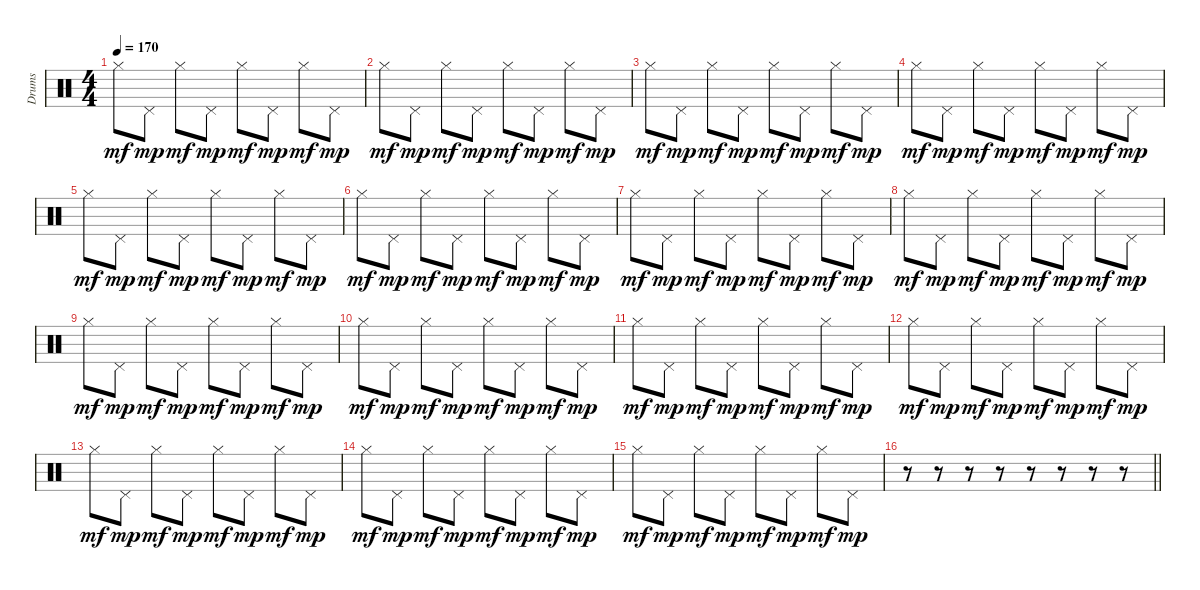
\track ("Drums" "Drums") {instrument percussion}
\staff {score}
\articulation defaults
\ts (4 4)
\tempo 170
\clef neutral
\ks c "Hi-Hat (closed)".8{dy mf} "Pedal Hi-Hat (hit)".8{dy mp} "Hi-Hat (closed)".8{dy mf} "Pedal Hi-Hat (hit)".8{dy mp} "Hi-Hat (closed)".8{dy mf} "Pedal Hi-Hat (hit)".8{dy mp} "Hi-Hat (closed)".8{dy mf} "Pedal Hi-Hat (hit)".8{dy mp}
|
"Hi-Hat (closed)".8{dy mf} "Pedal Hi-Hat (hit)".8{dy mp} "Hi-Hat (closed)".8{dy mf} "Pedal Hi-Hat (hit)".8{dy mp} "Hi-Hat (closed)".8{dy mf} "Pedal Hi-Hat (hit)".8{dy mp} "Hi-Hat (closed)".8{dy mf} "Pedal Hi-Hat (hit)".8{dy mp} |
"Hi-Hat (closed)".8{dy mf} "Pedal Hi-Hat (hit)".8{dy mp} "Hi-Hat (closed)".8{dy mf} "Pedal Hi-Hat (hit)".8{dy mp} "Hi-Hat (closed)".8{dy mf} "Pedal Hi-Hat (hit)".8{dy mp} "Hi-Hat (closed)".8{dy mf} "Pedal Hi-Hat (hit)".8{dy mp} |
"Hi-Hat (closed)".8{dy mf} "Pedal Hi-Hat (hit)".8{dy mp} "Hi-Hat (closed)".8{dy mf} "Pedal Hi-Hat (hit)".8{dy mp} "Hi-Hat (closed)".8{dy mf} "Pedal Hi-Hat (hit)".8{dy mp} "Hi-Hat (closed)".8{dy mf} "Pedal Hi-Hat (hit)".8{dy mp} |
"Hi-Hat (closed)".8{dy mf} "Pedal Hi-Hat (hit)".8{dy mp} "Hi-Hat (closed)".8{dy mf} "Pedal Hi-Hat (hit)".8{dy mp} "Hi-Hat (closed)".8{dy mf} "Pedal Hi-Hat (hit)".8{dy mp} "Hi-Hat (closed)".8{dy mf} "Pedal Hi-Hat (hit)".8{dy mp} |
"Hi-Hat (closed)".8{dy mf} "Pedal Hi-Hat (hit)".8{dy mp} "Hi-Hat (closed)".8{dy mf} "Pedal Hi-Hat (hit)".8{dy mp} "Hi-Hat (closed)".8{dy mf} "Pedal Hi-Hat (hit)".8{dy mp} "Hi-Hat (closed)".8{dy mf} "Pedal Hi-Hat (hit)".8{dy mp} |
"Hi-Hat (closed)".8{dy mf} "Pedal Hi-Hat (hit)".8{dy mp} "Hi-Hat (closed)".8{dy mf} "Pedal Hi-Hat (hit)".8{dy mp} "Hi-Hat (closed)".8{dy mf} "Pedal Hi-Hat (hit)".8{dy mp} "Hi-Hat (closed)".8{dy mf} "Pedal Hi-Hat (hit)".8{dy mp} |
"Hi-Hat (closed)".8{dy mf} "Pedal Hi-Hat (hit)".8{dy mp} "Hi-Hat (closed)".8{dy mf} "Pedal Hi-Hat (hit)".8{dy mp} "Hi-Hat (closed)".8{dy mf} "Pedal Hi-Hat (hit)".8{dy mp} "Hi-Hat (closed)".8{dy mf} "Pedal Hi-Hat (hit)".8{dy mp} |
"Hi-Hat (closed)".8{dy mf} "Pedal Hi-Hat (hit)".8{dy mp} "Hi-Hat (closed)".8{dy mf} "Pedal Hi-Hat (hit)".8{dy mp} "Hi-Hat (closed)".8{dy mf} "Pedal Hi-Hat (hit)".8{dy mp} "Hi-Hat (closed)".8{dy mf} "Pedal Hi-Hat (hit)".8{dy mp} |
"Hi-Hat (closed)".8{dy mf} "Pedal Hi-Hat (hit)".8{dy mp} "Hi-Hat (closed)".8{dy mf} "Pedal Hi-Hat (hit)".8{dy mp} "Hi-Hat (closed)".8{dy mf} "Pedal Hi-Hat (hit)".8{dy mp} "Hi-Hat (closed)".8{dy mf} "Pedal Hi-Hat (hit)".8{dy mp} |
"Hi-Hat (closed)".8{dy mf} "Pedal Hi-Hat (hit)".8{dy mp} "Hi-Hat (closed)".8{dy mf} "Pedal Hi-Hat (hit)".8{dy mp} "Hi-Hat (closed)".8{dy mf} "Pedal Hi-Hat (hit)".8{dy mp} "Hi-Hat (closed)".8{dy mf} "Pedal Hi-Hat (hit)".8{dy mp} |
"Hi-Hat (closed)".8{dy mf} "Pedal Hi-Hat (hit)".8{dy mp} "Hi-Hat (closed)".8{dy mf} "Pedal Hi-Hat (hit)".8{dy mp} "Hi-Hat (closed)".8{dy mf} "Pedal Hi-Hat (hit)".8{dy mp} "Hi-Hat (closed)".8{dy mf} "Pedal Hi-Hat (hit)".8{dy mp} |
"Hi-Hat (closed)".8{dy mf} "Pedal Hi-Hat (hit)".8{dy mp} "Hi-Hat (closed)".8{dy mf} "Pedal Hi-Hat (hit)".8{dy mp} "Hi-Hat (closed)".8{dy mf} "Pedal Hi-Hat (hit)".8{dy mp} "Hi-Hat (closed)".8{dy mf} "Pedal Hi-Hat (hit)".8{dy mp} |
"Hi-Hat (closed)".8{dy mf} "Pedal Hi-Hat (hit)".8{dy mp} "Hi-Hat (closed)".8{dy mf} "Pedal Hi-Hat (hit)".8{dy mp} "Hi-Hat (closed)".8{dy mf} "Pedal Hi-Hat (hit)".8{dy mp} "Hi-Hat (closed)".8{dy mf} "Pedal Hi-Hat (hit)".8{dy mp} |
"Hi-Hat (closed)".8{dy mf} "Pedal Hi-Hat (hit)".8{dy mp} "Hi-Hat (closed)".8{dy mf} "Pedal Hi-Hat (hit)".8{dy mp} "Hi-Hat (closed)".8{dy mf} "Pedal Hi-Hat (hit)".8{dy mp} "Hi-Hat (closed)".8{dy mf} "Pedal Hi-Hat (hit)".8{dy mp} |
\barLineRight lightlight
r.8 r.8 r.8 r.8 r.8 r.8 r.8 r.8
